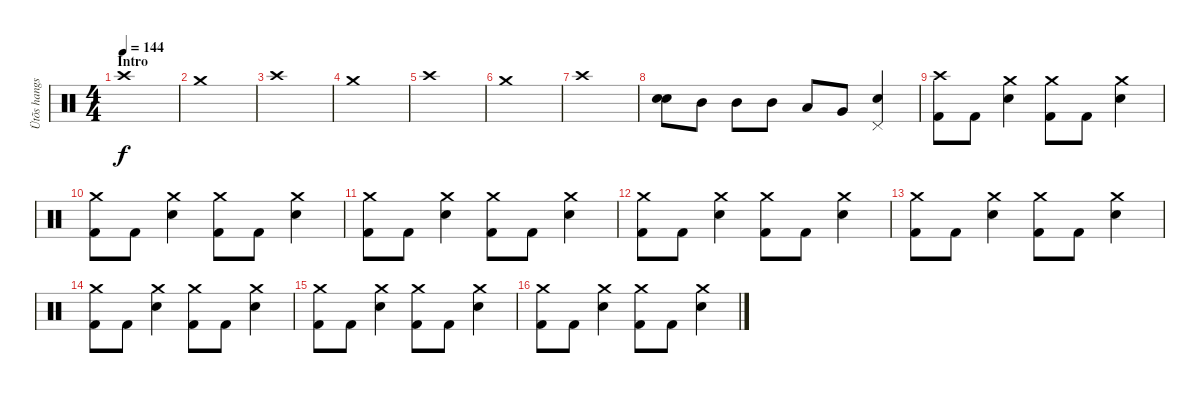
\track ("Ütõs hangszer" "Ütõs hangs") {instrument percussion}
\staff {score}
\articulation defaults
\ts (4 4)
\section ("" "Intro")
\tempo 144
\clef neutral
\ks c "Crash high (hit)".1{dy f}
|
"Crash medium (hit)".1 |
"Crash high (hit)".1 |
"Crash medium (hit)".1 |
"Crash high (hit)".1 |
"Crash medium (hit)".1 |
"Crash high (hit)".1 |
("Snare (hit) 2" "Electric Snare (hit)").8 "Mid Tom (hit)".8 "Mid Tom (hit)".8 "Mid Tom (hit)".8 "Low Tom (hit)".8 "Very Low Tom (hit)".8 ("Pedal Hi-Hat (hit)" "Electric Snare (hit)").4 |
("Crash high (hit)" "Kick (hit) 2").8 "Kick (hit) 2".8 ("Crash medium (hit)" "Electric Snare (hit)").4 ("Crash medium (hit)" "Kick (hit) 2").8 "Kick (hit) 2".8 ("Crash medium (hit)" "Electric Snare (hit)").4 |
("Crash medium (hit)" "Kick (hit) 2").8 "Kick (hit) 2".8 ("Crash medium (hit)" "Electric Snare (hit)").4 ("Crash medium (hit)" "Kick (hit) 2").8 "Kick (hit) 2".8 ("Crash medium (hit)" "Electric Snare (hit)").4 |
("Crash medium (hit)" "Kick (hit) 2").8 "Kick (hit) 2".8 ("Crash medium (hit)" "Electric Snare (hit)").4 ("Crash medium (hit)" "Kick (hit) 2").8 "Kick (hit) 2".8 ("Crash medium (hit)" "Electric Snare (hit)").4 |
("Crash medium (hit)" "Kick (hit) 2").8 "Kick (hit) 2".8 ("Crash medium (hit)" "Electric Snare (hit)").4 ("Crash medium (hit)" "Kick (hit) 2").8 "Kick (hit) 2".8 ("Crash medium (hit)" "Electric Snare (hit)").4 |
("Crash medium (hit)" "Kick (hit) 2").8 "Kick (hit) 2".8 ("Crash medium (hit)" "Electric Snare (hit)").4 ("Crash medium (hit)" "Kick (hit) 2").8 "Kick (hit) 2".8 ("Crash medium (hit)" "Electric Snare (hit)").4 |
("Crash medium (hit)" "Kick (hit) 2").8 "Kick (hit) 2".8 ("Crash medium (hit)" "Electric Snare (hit)").4 ("Crash medium (hit)" "Kick (hit) 2").8 "Kick (hit) 2".8 ("Crash medium (hit)" "Electric Snare (hit)").4 |
("Crash medium (hit)" "Kick (hit) 2").8 "Kick (hit) 2".8 ("Crash medium (hit)" "Electric Snare (hit)").4 ("Crash medium (hit)" "Kick (hit) 2").8 "Kick (hit) 2".8 ("Crash medium (hit)" "Electric Snare (hit)").4 |
("Crash medium (hit)" "Kick (hit) 2").8 "Kick (hit) 2".8 ("Crash medium (hit)" "Electric Snare (hit)").4 ("Crash medium (hit)" "Kick (hit) 2").8 "Kick (hit) 2".8 ("Crash medium (hit)" "Electric Snare (hit)").4
